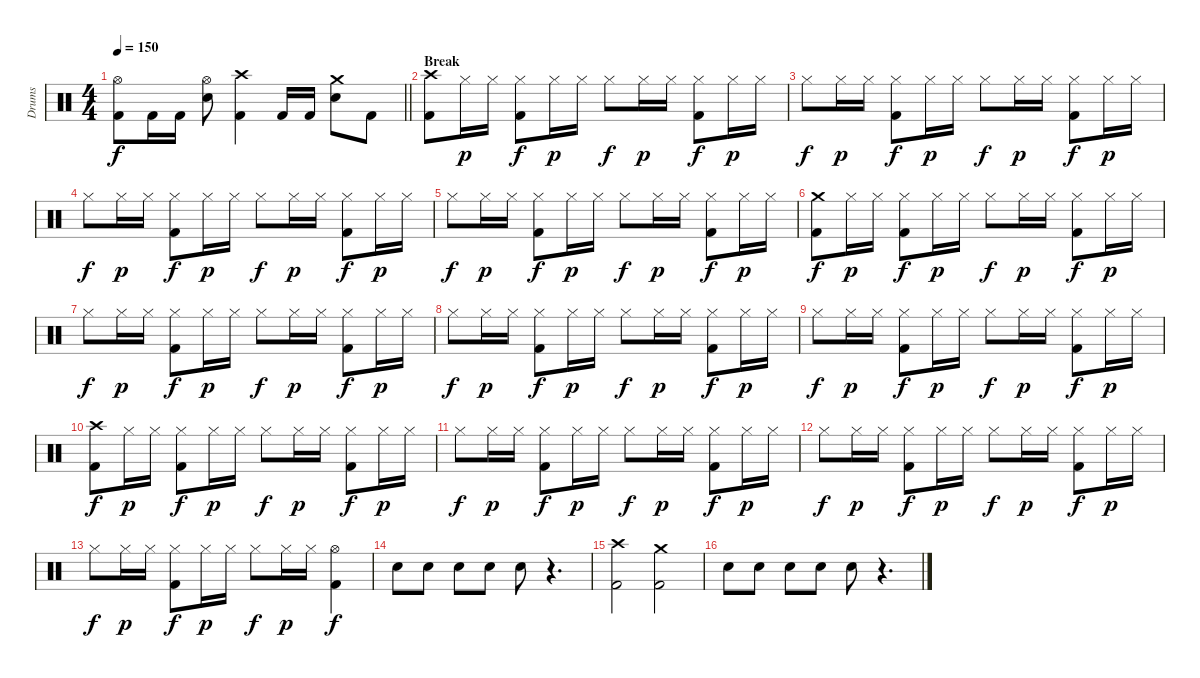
\track ("Drums" "Drums") {instrument percussion}
\staff {score}
\articulation defaults
\ts (4 4)
\tempo 150
\clef neutral
\barLineRight lightlight
\ks c
("Hi-Hat (open)" "Kick (hit) 2").8{dy f} "Kick (hit) 2".16 "Kick (hit) 2".16 ("Hi-Hat (open)" "Snare (hit) 2").8 ("Crash high (hit)" "Kick (hit) 2").4 "Kick (hit) 2".16 "Kick (hit) 2".16 ("Crash medium (hit)" "Snare (hit) 2").8 "Kick (hit) 2".8 |
\section ("" "Break")
("Crash high (hit)" "Kick (hit) 2").8 "Hi-Hat (closed)".16{dy p} "Hi-Hat (closed)".16 ("Hi-Hat (closed)" "Kick (hit) 2").8{dy f} "Hi-Hat (closed)".16{dy p} "Hi-Hat (closed)".16 "Hi-Hat (closed)".8{dy f} "Hi-Hat (closed)".16{dy p} "Hi-Hat (closed)".16 ("Hi-Hat (closed)" "Kick (hit) 2").8{dy f} "Hi-Hat (closed)".16{dy p} "Hi-Hat (closed)".16 |
"Hi-Hat (closed)".8{dy f} "Hi-Hat (closed)".16{dy p} "Hi-Hat (closed)".16 ("Hi-Hat (closed)" "Kick (hit) 2").8{dy f} "Hi-Hat (closed)".16{dy p} "Hi-Hat (closed)".16 "Hi-Hat (closed)".8{dy f} "Hi-Hat (closed)".16{dy p} "Hi-Hat (closed)".16 ("Hi-Hat (closed)" "Kick (hit) 2").8{dy f} "Hi-Hat (closed)".16{dy p} "Hi-Hat (closed)".16 |
"Hi-Hat (closed)".8{dy f} "Hi-Hat (closed)".16{dy p} "Hi-Hat (closed)".16 ("Hi-Hat (closed)" "Kick (hit) 2").8{dy f} "Hi-Hat (closed)".16{dy p} "Hi-Hat (closed)".16 "Hi-Hat (closed)".8{dy f} "Hi-Hat (closed)".16{dy p} "Hi-Hat (closed)".16 ("Hi-Hat (closed)" "Kick (hit) 2").8{dy f} "Hi-Hat (closed)".16{dy p} "Hi-Hat (closed)".16 |
"Hi-Hat (closed)".8{dy f} "Hi-Hat (closed)".16{dy p} "Hi-Hat (closed)".16 ("Hi-Hat (closed)" "Kick (hit) 2").8{dy f} "Hi-Hat (closed)".16{dy p} "Hi-Hat (closed)".16 "Hi-Hat (closed)".8{dy f} "Hi-Hat (closed)".16{dy p} "Hi-Hat (closed)".16 ("Hi-Hat (closed)" "Kick (hit) 2").8{dy f} "Hi-Hat (closed)".16{dy p} "Hi-Hat (closed)".16 |
("Crash medium (hit)" "Kick (hit) 2").8{dy f} "Hi-Hat (closed)".16{dy p} "Hi-Hat (closed)".16 ("Hi-Hat (closed)" "Kick (hit) 2").8{dy f} "Hi-Hat (closed)".16{dy p} "Hi-Hat (closed)".16 "Hi-Hat (closed)".8{dy f} "Hi-Hat (closed)".16{dy p} "Hi-Hat (closed)".16 ("Hi-Hat (closed)" "Kick (hit) 2").8{dy f} "Hi-Hat (closed)".16{dy p} "Hi-Hat (closed)".16 |
"Hi-Hat (closed)".8{dy f} "Hi-Hat (closed)".16{dy p} "Hi-Hat (closed)".16 ("Hi-Hat (closed)" "Kick (hit) 2").8{dy f} "Hi-Hat (closed)".16{dy p} "Hi-Hat (closed)".16 "Hi-Hat (closed)".8{dy f} "Hi-Hat (closed)".16{dy p} "Hi-Hat (closed)".16 ("Hi-Hat (closed)" "Kick (hit) 2").8{dy f} "Hi-Hat (closed)".16{dy p} "Hi-Hat (closed)".16 |
"Hi-Hat (closed)".8{dy f} "Hi-Hat (closed)".16{dy p} "Hi-Hat (closed)".16 ("Hi-Hat (closed)" "Kick (hit) 2").8{dy f} "Hi-Hat (closed)".16{dy p} "Hi-Hat (closed)".16 "Hi-Hat (closed)".8{dy f} "Hi-Hat (closed)".16{dy p} "Hi-Hat (closed)".16 ("Hi-Hat (closed)" "Kick (hit) 2").8{dy f} "Hi-Hat (closed)".16{dy p} "Hi-Hat (closed)".16 |
"Hi-Hat (closed)".8{dy f} "Hi-Hat (closed)".16{dy p} "Hi-Hat (closed)".16 ("Hi-Hat (closed)" "Kick (hit) 2").8{dy f} "Hi-Hat (closed)".16{dy p} "Hi-Hat (closed)".16 "Hi-Hat (closed)".8{dy f} "Hi-Hat (closed)".16{dy p} "Hi-Hat (closed)".16 ("Hi-Hat (closed)" "Kick (hit) 2").8{dy f} "Hi-Hat (closed)".16{dy p} "Hi-Hat (closed)".16 |
("Crash high (hit)" "Kick (hit) 2").8{dy f} "Hi-Hat (closed)".16{dy p} "Hi-Hat (closed)".16 ("Hi-Hat (closed)" "Kick (hit) 2").8{dy f} "Hi-Hat (closed)".16{dy p} "Hi-Hat (closed)".16 "Hi-Hat (closed)".8{dy f} "Hi-Hat (closed)".16{dy p} "Hi-Hat (closed)".16 ("Hi-Hat (closed)" "Kick (hit) 2").8{dy f} "Hi-Hat (closed)".16{dy p} "Hi-Hat (closed)".16 |
"Hi-Hat (closed)".8{dy f} "Hi-Hat (closed)".16{dy p} "Hi-Hat (closed)".16 ("Hi-Hat (closed)" "Kick (hit) 2").8{dy f} "Hi-Hat (closed)".16{dy p} "Hi-Hat (closed)".16 "Hi-Hat (closed)".8{dy f} "Hi-Hat (closed)".16{dy p} "Hi-Hat (closed)".16 ("Hi-Hat (closed)" "Kick (hit) 2").8{dy f} "Hi-Hat (closed)".16{dy p} "Hi-Hat (closed)".16 |
"Hi-Hat (closed)".8{dy f} "Hi-Hat (closed)".16{dy p} "Hi-Hat (closed)".16 ("Hi-Hat (closed)" "Kick (hit) 2").8{dy f} "Hi-Hat (closed)".16{dy p} "Hi-Hat (closed)".16 "Hi-Hat (closed)".8{dy f} "Hi-Hat (closed)".16{dy p} "Hi-Hat (closed)".16 ("Hi-Hat (closed)" "Kick (hit) 2").8{dy f} "Hi-Hat (closed)".16{dy p} "Hi-Hat (closed)".16 |
"Hi-Hat (closed)".8{dy f} "Hi-Hat (closed)".16{dy p} "Hi-Hat (closed)".16 ("Hi-Hat (closed)" "Kick (hit) 2").8{dy f} "Hi-Hat (closed)".16{dy p} "Hi-Hat (closed)".16 "Hi-Hat (closed)".8{dy f} "Hi-Hat (closed)".16{dy p} "Hi-Hat (closed)".16 ("Hi-Hat (open)" "Kick (hit) 2").4{dy f} |
"Snare (hit) 2".8 "Snare (hit) 2".8 "Snare (hit) 2".8 "Snare (hit) 2".8 "Snare (hit) 2".8 r.4{d} |
("Crash high (hit)" "Kick (hit) 2").2 ("Crash medium (hit)" "Kick (hit) 2").2 |
"Snare (hit) 2".8 "Snare (hit) 2".8 "Snare (hit) 2".8 "Snare (hit) 2".8 "Snare (hit) 2".8 r.4{d}
